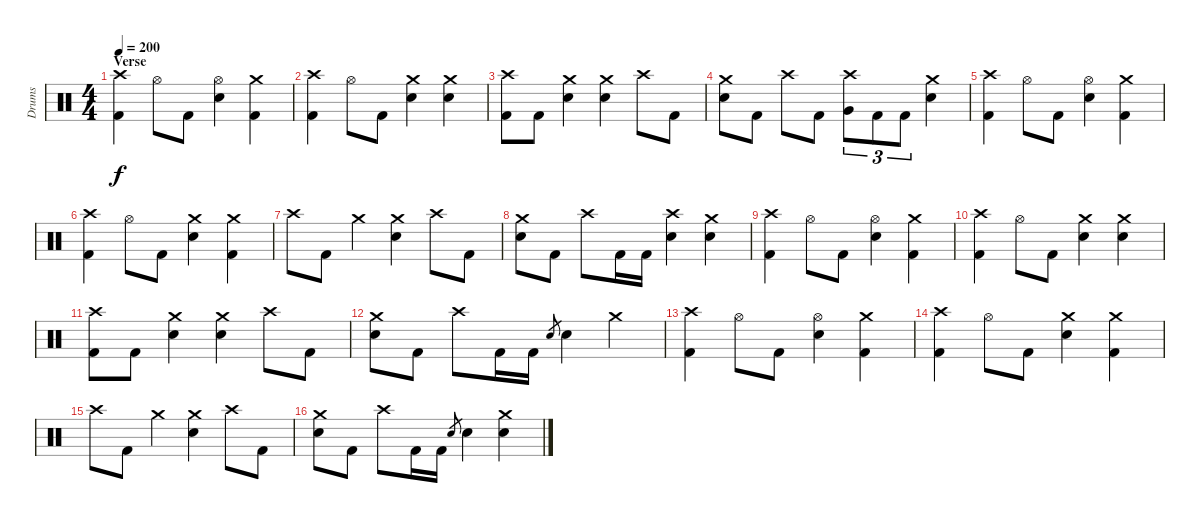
\track ("Drums" "Drums") {instrument percussion}
\staff {score}
\articulation defaults
\ts (4 4)
\section ("" "Verse")
\tempo 200
\clef neutral
\ks c
("Crash high (hit)" "Kick (hit) 2").4{dy f} "Hi-Hat (open)".8 "Kick (hit) 2".8 ("Hi-Hat (open)" "Electric Snare (hit)").4 ("Crash medium (hit)" "Kick (hit) 2").4 |
("Crash high (hit)" "Kick (hit) 2").4 "Hi-Hat (open)".8 "Kick (hit) 2".8 ("Crash medium (hit)" "Electric Snare (hit)").4 ("Crash medium (hit)" "Electric Snare (hit)").4 |
("Crash high (hit)" "Kick (hit) 2").8 "Kick (hit) 2".8 ("Crash medium (hit)" "Electric Snare (hit)").4 ("Crash medium (hit)" "Electric Snare (hit)").4 "Crash high (hit)".8 "Kick (hit) 2".8 |
("Crash medium (hit)" "Electric Snare (hit)").8 "Kick (hit) 2".8 "Crash high (hit)".8 "Kick (hit) 2".8 ("Crash high (hit)" "Very Low Tom (hit)").8{tu (3 2)} "Kick (hit) 2".8{tu (3 2)} "Kick (hit) 2".8{tu (3 2)} ("Crash medium (hit)" "Electric Snare (hit)").4 |
("Crash high (hit)" "Kick (hit) 2").4 "Hi-Hat (open)".8 "Kick (hit) 2".8 ("Hi-Hat (open)" "Electric Snare (hit)").4 ("Crash medium (hit)" "Kick (hit) 2").4 |
("Crash high (hit)" "Kick (hit) 2").4 "Hi-Hat (open)".8 "Kick (hit) 2".8 ("Crash medium (hit)" "Electric Snare (hit)").4 ("Crash medium (hit)" "Kick (hit) 2").4 |
"Crash high (hit)".8 "Kick (hit) 2".8 "Crash medium (hit)".4 ("Crash medium (hit)" "Electric Snare (hit)").4 "Crash high (hit)".8 "Kick (hit) 2".8 |
("Crash medium (hit)" "Electric Snare (hit)").8 "Kick (hit) 2".8 "Crash high (hit)".8 "Kick (hit) 2".16 "Kick (hit) 2".16 ("Crash high (hit)" "Electric Snare (hit)").4 ("Crash medium (hit)" "Electric Snare (hit)").4 |
("Crash high (hit)" "Kick (hit) 2").4 "Hi-Hat (open)".8 "Kick (hit) 2".8 ("Hi-Hat (open)" "Electric Snare (hit)").4 ("Crash medium (hit)" "Kick (hit) 2").4 |
("Crash high (hit)" "Kick (hit) 2").4 "Hi-Hat (open)".8 "Kick (hit) 2".8 ("Crash medium (hit)" "Electric Snare (hit)").4 ("Crash medium (hit)" "Electric Snare (hit)").4 |
("Crash high (hit)" "Kick (hit) 2").8 "Kick (hit) 2".8 ("Crash medium (hit)" "Electric Snare (hit)").4 ("Crash medium (hit)" "Electric Snare (hit)").4 "Crash high (hit)".8 "Kick (hit) 2".8 |
("Crash medium (hit)" "Electric Snare (hit)").8 "Kick (hit) 2".8 "Crash high (hit)".8 "Kick (hit) 2".16 "Kick (hit) 2".16 "Electric Snare (hit)".8{gr} "Electric Snare (hit)".4 "Crash medium (hit)".4 |
("Crash high (hit)" "Kick (hit) 2").4 "Hi-Hat (open)".8 "Kick (hit) 2".8 ("Hi-Hat (open)" "Electric Snare (hit)").4 ("Crash medium (hit)" "Kick (hit) 2").4 |
("Crash high (hit)" "Kick (hit) 2").4 "Hi-Hat (open)".8 "Kick (hit) 2".8 ("Crash medium (hit)" "Electric Snare (hit)").4 ("Crash medium (hit)" "Kick (hit) 2").4 |
"Crash high (hit)".8 "Kick (hit) 2".8 "Crash medium (hit)".4 ("Crash medium (hit)" "Electric Snare (hit)").4 "Crash high (hit)".8 "Kick (hit) 2".8 |
("Crash medium (hit)" "Electric Snare (hit)").8 "Kick (hit) 2".8 "Crash high (hit)".8 "Kick (hit) 2".16 "Kick (hit) 2".16 "Electric Snare (hit)".8{gr} "Electric Snare (hit)".4 ("Crash medium (hit)" "Electric Snare (hit)").4
